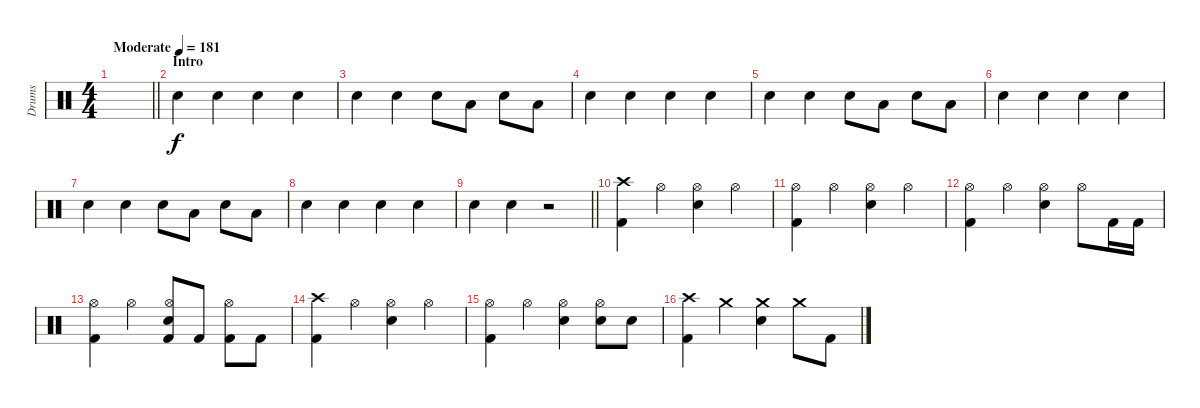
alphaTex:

\track ("Drums" "Drums") {instrument percussion}
\staff {score}
\articulation defaults
\ts (4 4)
\tempo (181 "Moderate")
\clef neutral
\barLineRight lightlight
\ks c
|
\section ("" "Intro")
"Hand Clap (hit)".4 "Hand Clap (hit)".4 "Hand Clap (hit)".4 "Hand Clap (hit)".4 |
"Hand Clap (hit)".4 "Hand Clap (hit)".4 "Hand Clap (hit)".8 "Low Tom (hit)".8 "Hand Clap (hit)".8 "Low Tom (hit)".8 |
"Hand Clap (hit)".4 "Hand Clap (hit)".4 "Hand Clap (hit)".4 "Hand Clap (hit)".4 |
"Hand Clap (hit)".4 "Hand Clap (hit)".4 "Hand Clap (hit)".8 "Low Tom (hit)".8 "Hand Clap (hit)".8 "Low Tom (hit)".8 |
"Hand Clap (hit)".4 "Hand Clap (hit)".4 "Hand Clap (hit)".4 "Hand Clap (hit)".4 |
"Hand Clap (hit)".4 "Hand Clap (hit)".4 "Hand Clap (hit)".8 "Low Tom (hit)".8 "Hand Clap (hit)".8 "Low Tom (hit)".8 |
"Hand Clap (hit)".4 "Hand Clap (hit)".4 "Hand Clap (hit)".4 "Hand Clap (hit)".4 |
\barLineRight lightlight "Hand Clap (hit)".4 "Hand Clap (hit)".4
r.2 |
("Crash high (hit)" "Kick (hit) 2").4 "Hi-Hat (open)".4 ("Hi-Hat (open)" "Snare (hit) 2").4 "Hi-Hat (open)".4 |
("Hi-Hat (open)" "Kick (hit) 2").4 "Hi-Hat (open)".4 ("Hi-Hat (open)" "Snare (hit) 2").4 "Hi-Hat (open)".4 |
("Hi-Hat (open)" "Kick (hit) 2").4 "Hi-Hat (open)".4 ("Hi-Hat (open)" "Snare (hit) 2").4 "Hi-Hat (open)".8 "Kick (hit) 2".16 "Kick (hit) 2".16 |
("Hi-Hat (open)" "Kick (hit) 2").4 "Hi-Hat (open)".4 ("Hi-Hat (open)" "Snare (hit) 2" "Kick (hit) 2").8 "Kick (hit) 2".8 ("Hi-Hat (open)" "Kick (hit) 2").8 "Kick (hit) 2".8 |
("Crash high (hit)" "Kick (hit) 2").4 "Hi-Hat (open)".4 ("Hi-Hat (open)" "Snare (hit) 2").4 "Hi-Hat (open)".4 |
("Hi-Hat (open)" "Kick (hit) 2").4 "Hi-Hat (open)".4 ("Hi-Hat (open)" "Snare (hit) 2").4 ("Hi-Hat (open)" "Snare (hit) 2").8 "Snare (hit) 2".8 |
("Crash high (hit)" "Kick (hit) 2").4 "Crash medium (hit)".4 ("Crash medium (hit)" "Snare (hit) 2").4 "Crash medium (hit)".8 "Kick (hit) 2".8
